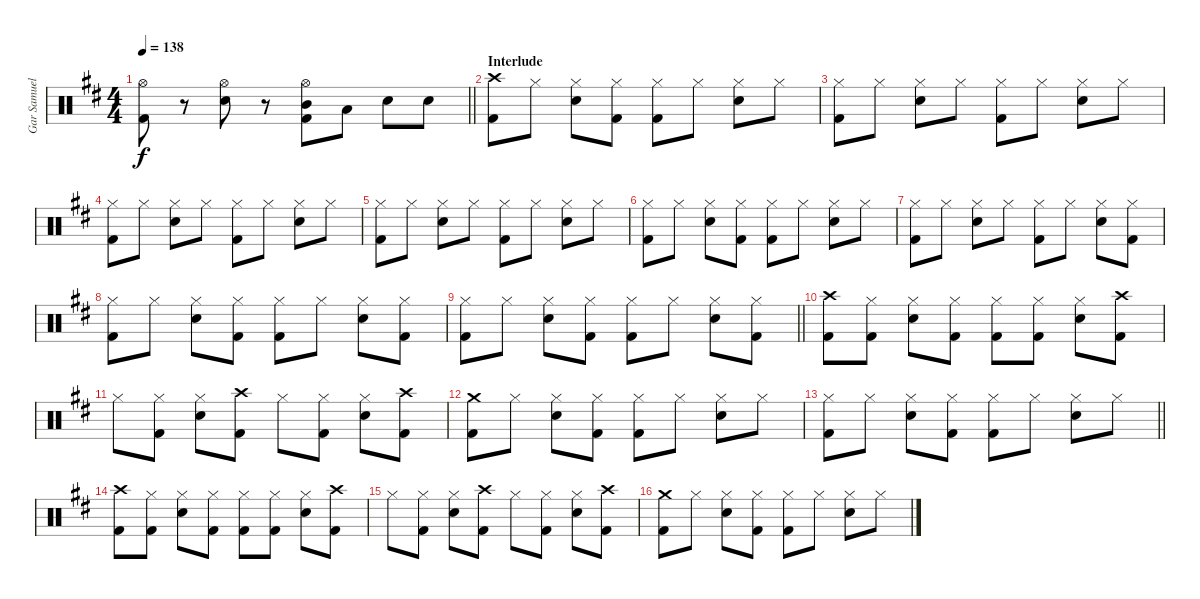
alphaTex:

\track ("Gar Samuelson" "Gar Samuel") {instrument percussion}
\staff {score}
\articulation defaults
\ts (4 4)
\tempo 138
\clef neutral
\barLineRight lightlight
\ks d
("Hi-Hat (open)" "Kick (hit) 2").8{dy f} r.8 ("Hi-Hat (open)" "Snare (hit) 2").8 r.8 ("Hi-Hat (open)" "Mid Tom (hit)" "Kick (hit) 2").8 "Low Tom (hit)".8 "Snare (hit) 2".8 "Snare (hit) 2".8 |
\section ("" "Interlude")
("Crash high (hit)" "Kick (hit) 2").8 "Hi-Hat (closed)".8 ("Hi-Hat (closed)" "Snare (hit) 2").8 ("Hi-Hat (closed)" "Kick (hit) 2").8 ("Hi-Hat (closed)" "Kick (hit) 2").8 "Hi-Hat (closed)".8 ("Hi-Hat (closed)" "Snare (hit) 2").8 "Hi-Hat (closed)".8 |
("Hi-Hat (closed)" "Kick (hit) 2").8 "Hi-Hat (closed)".8 ("Hi-Hat (closed)" "Snare (hit) 2").8 "Hi-Hat (closed)".8 ("Hi-Hat (closed)" "Kick (hit) 2").8 "Hi-Hat (closed)".8 ("Hi-Hat (closed)" "Snare (hit) 2").8 "Hi-Hat (closed)".8 |
("Hi-Hat (closed)" "Kick (hit) 2").8 "Hi-Hat (closed)".8 ("Hi-Hat (closed)" "Snare (hit) 2").8 "Hi-Hat (closed)".8 ("Hi-Hat (closed)" "Kick (hit) 2").8 "Hi-Hat (closed)".8 ("Hi-Hat (closed)" "Snare (hit) 2").8 "Hi-Hat (closed)".8 |
("Hi-Hat (closed)" "Kick (hit) 2").8 "Hi-Hat (closed)".8 ("Hi-Hat (closed)" "Snare (hit) 2").8 "Hi-Hat (closed)".8 ("Hi-Hat (closed)" "Kick (hit) 2").8 "Hi-Hat (closed)".8 ("Hi-Hat (closed)" "Snare (hit) 2").8 "Hi-Hat (closed)".8 |
("Hi-Hat (closed)" "Kick (hit) 2").8 "Hi-Hat (closed)".8 ("Hi-Hat (closed)" "Snare (hit) 2").8 ("Hi-Hat (closed)" "Kick (hit) 2").8 ("Hi-Hat (closed)" "Kick (hit) 2").8 "Hi-Hat (closed)".8 ("Hi-Hat (closed)" "Snare (hit) 2").8 "Hi-Hat (closed)".8 |
("Hi-Hat (closed)" "Kick (hit) 2").8 "Hi-Hat (closed)".8 ("Hi-Hat (closed)" "Snare (hit) 2").8 "Hi-Hat (closed)".8 ("Hi-Hat (closed)" "Kick (hit) 2").8 "Hi-Hat (closed)".8 ("Hi-Hat (closed)" "Snare (hit) 2").8 ("Hi-Hat (closed)" "Kick (hit) 2").8 |
("Hi-Hat (closed)" "Kick (hit) 2").8 "Hi-Hat (closed)".8 ("Hi-Hat (closed)" "Snare (hit) 2").8 ("Hi-Hat (closed)" "Kick (hit) 2").8 ("Hi-Hat (closed)" "Kick (hit) 2").8 "Hi-Hat (closed)".8 ("Hi-Hat (closed)" "Snare (hit) 2").8 ("Hi-Hat (closed)" "Kick (hit) 2").8 |
\barLineRight lightlight
("Hi-Hat (closed)" "Kick (hit) 2").8 "Hi-Hat (closed)".8 ("Hi-Hat (closed)" "Snare (hit) 2").8 ("Hi-Hat (closed)" "Kick (hit) 2").8 ("Hi-Hat (closed)" "Kick (hit) 2").8 "Hi-Hat (closed)".8 ("Hi-Hat (closed)" "Snare (hit) 2").8 ("Hi-Hat (closed)" "Kick (hit) 2").8 |
("Crash high (hit)" "Kick (hit) 2").8 ("Hi-Hat (closed)" "Kick (hit) 2").8 ("Hi-Hat (closed)" "Snare (hit) 2").8 ("Hi-Hat (closed)" "Kick (hit) 2").8 ("Hi-Hat (closed)" "Kick (hit) 2").8 ("Hi-Hat (closed)" "Kick (hit) 2").8 ("Hi-Hat (closed)" "Snare (hit) 2").8 ("Crash high (hit)" "Kick (hit) 2").8 |
"Hi-Hat (closed)".8 ("Hi-Hat (closed)" "Kick (hit) 2").8 ("Hi-Hat (closed)" "Snare (hit) 2").8 ("Crash high (hit)" "Kick (hit) 2").8 "Hi-Hat (closed)".8 ("Hi-Hat (closed)" "Kick (hit) 2").8 ("Hi-Hat (closed)" "Snare (hit) 2").8 ("Crash high (hit)" "Kick (hit) 2").8 |
("Crash medium (hit)" "Kick (hit) 2").8 "Hi-Hat (closed)".8 ("Hi-Hat (closed)" "Snare (hit) 2").8 ("Hi-Hat (closed)" "Kick (hit) 2").8 ("Hi-Hat (closed)" "Kick (hit) 2").8 "Hi-Hat (closed)".8 ("Hi-Hat (closed)" "Snare (hit) 2").8 "Hi-Hat (closed)".8 |
\barLineRight lightlight
("Hi-Hat (closed)" "Kick (hit) 2").8 "Hi-Hat (closed)".8 ("Hi-Hat (closed)" "Snare (hit) 2").8 ("Hi-Hat (closed)" "Kick (hit) 2").8 ("Hi-Hat (closed)" "Kick (hit) 2").8 "Hi-Hat (closed)".8 ("Hi-Hat (closed)" "Snare (hit) 2").8 "Hi-Hat (closed)".8 |
("Crash high (hit)" "Kick (hit) 2").8 ("Hi-Hat (closed)" "Kick (hit) 2").8 ("Hi-Hat (closed)" "Snare (hit) 2").8 ("Hi-Hat (closed)" "Kick (hit) 2").8 ("Hi-Hat (closed)" "Kick (hit) 2").8 ("Hi-Hat (closed)" "Kick (hit) 2").8 ("Hi-Hat (closed)" "Snare (hit) 2").8 ("Crash high (hit)" "Kick (hit) 2").8 |
"Hi-Hat (closed)".8 ("Hi-Hat (closed)" "Kick (hit) 2").8 ("Hi-Hat (closed)" "Snare (hit) 2").8 ("Crash high (hit)" "Kick (hit) 2").8 "Hi-Hat (closed)".8 ("Hi-Hat (closed)" "Kick (hit) 2").8 ("Hi-Hat (closed)" "Snare (hit) 2").8 ("Crash high (hit)" "Kick (hit) 2").8 |
("Crash medium (hit)" "Kick (hit) 2").8 "Hi-Hat (closed)".8 ("Hi-Hat (closed)" "Snare (hit) 2").8 ("Hi-Hat (closed)" "Kick (hit) 2").8 ("Hi-Hat (closed)" "Kick (hit) 2").8 "Hi-Hat (closed)".8 ("Hi-Hat (closed)" "Snare (hit) 2").8 "Hi-Hat (closed)".8
